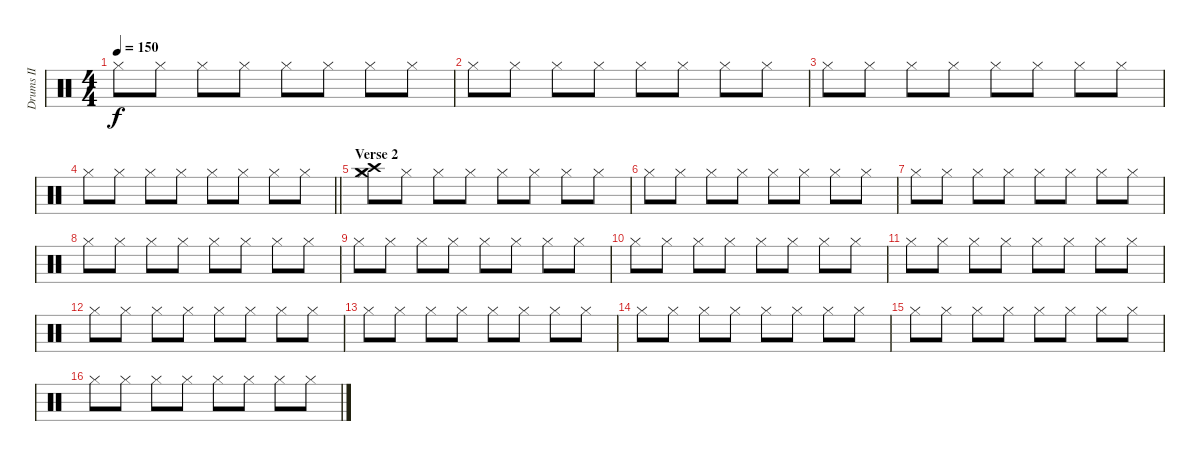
\track ("Drums II" "Drums II") {instrument percussion}
\staff {score}
\articulation defaults
\ts (4 4)
\tempo 150
\clef neutral
\ks c "Hi-Hat (closed)".8{dy f} "Hi-Hat (closed)".8 "Hi-Hat (closed)".8 "Hi-Hat (closed)".8 "Hi-Hat (closed)".8 "Hi-Hat (closed)".8 "Hi-Hat (closed)".8 "Hi-Hat (closed)".8
|
"Hi-Hat (closed)".8 "Hi-Hat (closed)".8 "Hi-Hat (closed)".8 "Hi-Hat (closed)".8 "Hi-Hat (closed)".8 "Hi-Hat (closed)".8 "Hi-Hat (closed)".8 "Hi-Hat (closed)".8 |
"Hi-Hat (closed)".8 "Hi-Hat (closed)".8 "Hi-Hat (closed)".8 "Hi-Hat (closed)".8 "Hi-Hat (closed)".8 "Hi-Hat (closed)".8 "Hi-Hat (closed)".8 "Hi-Hat (closed)".8 |
\barLineRight lightlight "Hi-Hat (closed)".8 "Hi-Hat (closed)".8 "Hi-Hat (closed)".8 "Hi-Hat (closed)".8 "Hi-Hat (closed)".8 "Hi-Hat (closed)".8 "Hi-Hat (closed)".8 "Hi-Hat (closed)".8
|
\section ("" "Verse 2")
("Hi-Hat (closed)" "Crash high (hit)" "Crash medium (hit)").8 "Hi-Hat (closed)".8 "Hi-Hat (closed)".8 "Hi-Hat (closed)".8 "Hi-Hat (closed)".8 "Hi-Hat (closed)".8 "Hi-Hat (closed)".8 "Hi-Hat (closed)".8 |
"Hi-Hat (closed)".8 "Hi-Hat (closed)".8 "Hi-Hat (closed)".8 "Hi-Hat (closed)".8 "Hi-Hat (closed)".8 "Hi-Hat (closed)".8 "Hi-Hat (closed)".8 "Hi-Hat (closed)".8 |
"Hi-Hat (closed)".8 "Hi-Hat (closed)".8 "Hi-Hat (closed)".8 "Hi-Hat (closed)".8 "Hi-Hat (closed)".8 "Hi-Hat (closed)".8 "Hi-Hat (closed)".8 "Hi-Hat (closed)".8 |
"Hi-Hat (closed)".8 "Hi-Hat (closed)".8 "Hi-Hat (closed)".8 "Hi-Hat (closed)".8 "Hi-Hat (closed)".8 "Hi-Hat (closed)".8 "Hi-Hat (closed)".8 "Hi-Hat (closed)".8 |
"Hi-Hat (closed)".8 "Hi-Hat (closed)".8 "Hi-Hat (closed)".8 "Hi-Hat (closed)".8 "Hi-Hat (closed)".8 "Hi-Hat (closed)".8 "Hi-Hat (closed)".8 "Hi-Hat (closed)".8 |
"Hi-Hat (closed)".8 "Hi-Hat (closed)".8 "Hi-Hat (closed)".8 "Hi-Hat (closed)".8 "Hi-Hat (closed)".8 "Hi-Hat (closed)".8 "Hi-Hat (closed)".8 "Hi-Hat (closed)".8 |
"Hi-Hat (closed)".8 "Hi-Hat (closed)".8 "Hi-Hat (closed)".8 "Hi-Hat (closed)".8 "Hi-Hat (closed)".8 "Hi-Hat (closed)".8 "Hi-Hat (closed)".8 "Hi-Hat (closed)".8 |
"Hi-Hat (closed)".8 "Hi-Hat (closed)".8 "Hi-Hat (closed)".8 "Hi-Hat (closed)".8 "Hi-Hat (closed)".8 "Hi-Hat (closed)".8 "Hi-Hat (closed)".8 "Hi-Hat (closed)".8 |
"Hi-Hat (closed)".8 "Hi-Hat (closed)".8 "Hi-Hat (closed)".8 "Hi-Hat (closed)".8 "Hi-Hat (closed)".8 "Hi-Hat (closed)".8 "Hi-Hat (closed)".8 "Hi-Hat (closed)".8 |
"Hi-Hat (closed)".8 "Hi-Hat (closed)".8 "Hi-Hat (closed)".8 "Hi-Hat (closed)".8 "Hi-Hat (closed)".8 "Hi-Hat (closed)".8 "Hi-Hat (closed)".8 "Hi-Hat (closed)".8 |
"Hi-Hat (closed)".8 "Hi-Hat (closed)".8 "Hi-Hat (closed)".8 "Hi-Hat (closed)".8 "Hi-Hat (closed)".8 "Hi-Hat (closed)".8 "Hi-Hat (closed)".8 "Hi-Hat (closed)".8 |
"Hi-Hat (closed)".8 "Hi-Hat (closed)".8 "Hi-Hat (closed)".8 "Hi-Hat (closed)".8 "Hi-Hat (closed)".8 "Hi-Hat (closed)".8 "Hi-Hat (closed)".8 "Hi-Hat (closed)".8
